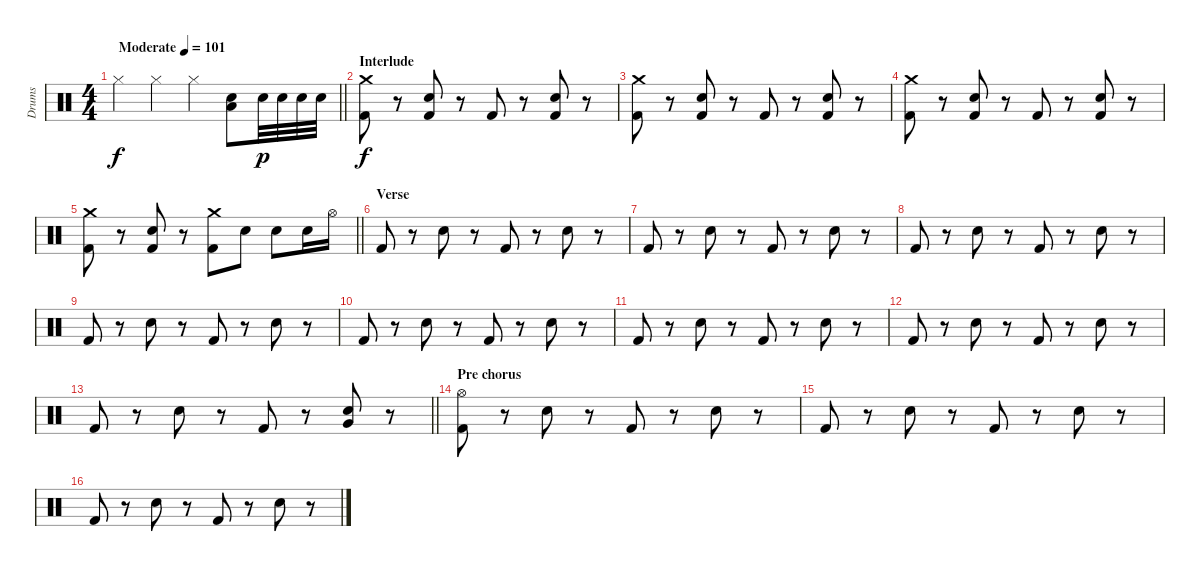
\track ("Drums" "Drums") {instrument percussion}
\staff {score}
\articulation defaults
\ts (4 4)
\tempo (101 "Moderate")
\clef neutral
\barLineRight lightlight
\ks c "Hi-Hat (closed)".4{dy f} "Hi-Hat (closed)".4 "Hi-Hat (closed)".4
("Electric Snare (hit)" "Low Floor Tom (hit)").8 "Electric Snare (hit)".32{dy p} "Electric Snare (hit)".32 "Electric Snare (hit)".32 "Electric Snare (hit)".32 |
\section ("" "Interlude")
("Crash medium (hit)" "Kick (hit) 2").8{dy f} r.8 ("Electric Snare (hit)" "Kick (hit) 2").8 r.8 "Kick (hit) 2".8 r.8 ("Electric Snare (hit)" "Kick (hit) 2").8 r.8 |
("Crash medium (hit)" "Kick (hit) 2").8 r.8 ("Electric Snare (hit)" "Kick (hit) 2").8 r.8 "Kick (hit) 2".8 r.8 ("Electric Snare (hit)" "Kick (hit) 2").8 r.8 |
("Crash medium (hit)" "Kick (hit) 2").8 r.8 ("Electric Snare (hit)" "Kick (hit) 2").8 r.8 "Kick (hit) 2".8 r.8 ("Electric Snare (hit)" "Kick (hit) 2").8 r.8 |
\barLineRight lightlight
("Crash medium (hit)" "Kick (hit) 2").8 r.8 ("Electric Snare (hit)" "Kick (hit) 2").8 r.8 ("Crash medium (hit)" "Kick (hit) 2").8 "Electric Snare (hit)".8 "Electric Snare (hit)".8 "Electric Snare (hit)".16 "Hi-Hat (open)".16 |
\section ("" "Verse")
"Kick (hit) 2".8 r.8 "Electric Snare (hit)".8 r.8 "Kick (hit) 2".8 r.8 "Electric Snare (hit)".8 r.8 |
"Kick (hit) 2".8 r.8 "Electric Snare (hit)".8 r.8 "Kick (hit) 2".8 r.8 "Electric Snare (hit)".8 r.8 |
"Kick (hit) 2".8 r.8 "Electric Snare (hit)".8 r.8 "Kick (hit) 2".8 r.8 "Electric Snare (hit)".8 r.8 |
"Kick (hit) 2".8 r.8 "Electric Snare (hit)".8 r.8 "Kick (hit) 2".8 r.8 "Electric Snare (hit)".8 r.8 |
"Kick (hit) 2".8 r.8 "Electric Snare (hit)".8 r.8 "Kick (hit) 2".8 r.8 "Electric Snare (hit)".8 r.8 |
"Kick (hit) 2".8 r.8 "Electric Snare (hit)".8 r.8 "Kick (hit) 2".8 r.8 "Electric Snare (hit)".8 r.8 |
"Kick (hit) 2".8 r.8 "Electric Snare (hit)".8 r.8 "Kick (hit) 2".8 r.8 "Electric Snare (hit)".8 r.8 |
\barLineRight lightlight "Kick (hit) 2".8
r.8 "Electric Snare (hit)".8 r.8 "Kick (hit) 2".8 r.8 ("Electric Snare (hit)" "Very Low Tom (hit)").8 r.8 |
\section ("" "Pre chorus")
("Hi-Hat (open)" "Kick (hit) 2").8 r.8 "Electric Snare (hit)".8 r.8 "Kick (hit) 2".8 r.8 "Electric Snare (hit)".8 r.8 |
"Kick (hit) 2".8 r.8 "Electric Snare (hit)".8 r.8 "Kick (hit) 2".8 r.8 "Electric Snare (hit)".8 r.8 |
"Kick (hit) 2".8 r.8 "Electric Snare (hit)".8 r.8 "Kick (hit) 2".8 r.8 "Electric Snare (hit)".8 r.8
